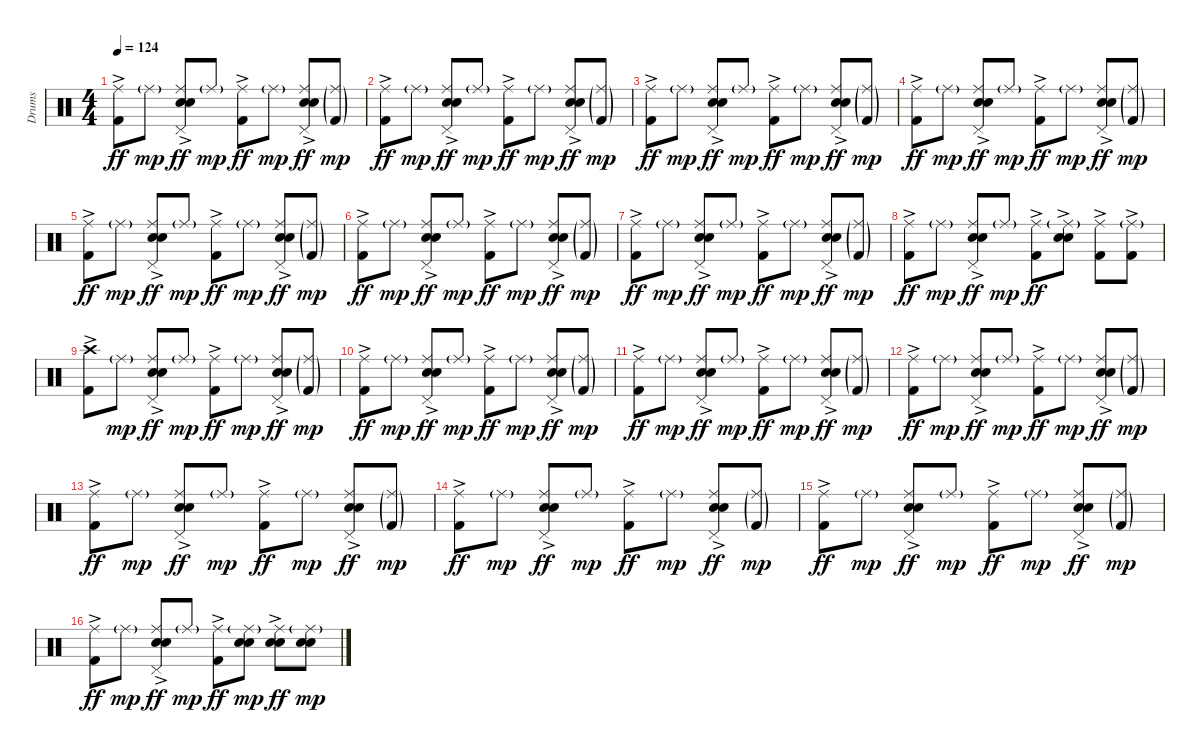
\track ("Drums" "Drums") {instrument percussion}
\staff {score}
\articulation defaults
\ts (4 4)
\tempo 124
\clef neutral
\ks c
("Ride (middle)" "Kick (hit) 2"{ac}).8{dy ff} "Ride (middle)"{g}.8{dy mp} ("Ride (middle)" "Electric Snare (hit)"{ac} "Snare (hit) 2" "Pedal Hi-Hat (hit)").8{dy ff} "Ride (middle)"{g}.8{dy mp} ("Ride (middle)" "Kick (hit) 2"{ac}).8{dy ff} "Ride (middle)"{g}.8{dy mp} ("Ride (middle)" "Electric Snare (hit)"{ac} "Snare (hit) 2" "Pedal Hi-Hat (hit)").8{dy ff} ("Ride (middle)"{g} "Kick (hit) 2"{g}).8{dy mp} |
("Ride (middle)" "Kick (hit) 2"{ac}).8{dy ff} "Ride (middle)"{g}.8{dy mp} ("Ride (middle)" "Electric Snare (hit)"{ac} "Snare (hit) 2" "Pedal Hi-Hat (hit)").8{dy ff} "Ride (middle)"{g}.8{dy mp} ("Ride (middle)" "Kick (hit) 2"{ac}).8{dy ff} "Ride (middle)"{g}.8{dy mp} ("Ride (middle)" "Electric Snare (hit)"{ac} "Snare (hit) 2" "Pedal Hi-Hat (hit)").8{dy ff} ("Ride (middle)"{g} "Kick (hit) 2"{g}).8{dy mp} |
("Ride (middle)" "Kick (hit) 2"{ac}).8{dy ff} "Ride (middle)"{g}.8{dy mp} ("Ride (middle)" "Electric Snare (hit)"{ac} "Snare (hit) 2" "Pedal Hi-Hat (hit)").8{dy ff} "Ride (middle)"{g}.8{dy mp} ("Ride (middle)" "Kick (hit) 2"{ac}).8{dy ff} "Ride (middle)"{g}.8{dy mp} ("Ride (middle)" "Electric Snare (hit)"{ac} "Snare (hit) 2" "Pedal Hi-Hat (hit)").8{dy ff} ("Ride (middle)"{g} "Kick (hit) 2"{g}).8{dy mp} |
("Ride (middle)" "Kick (hit) 2"{ac}).8{dy ff} "Ride (middle)"{g}.8{dy mp} ("Ride (middle)" "Electric Snare (hit)"{ac} "Snare (hit) 2" "Pedal Hi-Hat (hit)").8{dy ff} "Ride (middle)"{g}.8{dy mp} ("Ride (middle)" "Kick (hit) 2"{ac}).8{dy ff} "Ride (middle)"{g}.8{dy mp} ("Ride (middle)" "Electric Snare (hit)"{ac} "Snare (hit) 2" "Pedal Hi-Hat (hit)").8{dy ff} ("Ride (middle)"{g} "Kick (hit) 2"{g}).8{dy mp} |
("Ride (middle)" "Kick (hit) 2"{ac}).8{dy ff} "Ride (middle)"{g}.8{dy mp} ("Ride (middle)" "Electric Snare (hit)"{ac} "Snare (hit) 2" "Pedal Hi-Hat (hit)").8{dy ff} "Ride (middle)"{g}.8{dy mp} ("Ride (middle)" "Kick (hit) 2"{ac}).8{dy ff} "Ride (middle)"{g}.8{dy mp} ("Ride (middle)" "Electric Snare (hit)"{ac} "Snare (hit) 2" "Pedal Hi-Hat (hit)").8{dy ff} ("Ride (middle)"{g} "Kick (hit) 2"{g}).8{dy mp} |
("Ride (middle)" "Kick (hit) 2"{ac}).8{dy ff} "Ride (middle)"{g}.8{dy mp} ("Ride (middle)" "Electric Snare (hit)"{ac} "Snare (hit) 2" "Pedal Hi-Hat (hit)").8{dy ff} "Ride (middle)"{g}.8{dy mp} ("Ride (middle)" "Kick (hit) 2"{ac}).8{dy ff} "Ride (middle)"{g}.8{dy mp} ("Ride (middle)" "Electric Snare (hit)"{ac} "Snare (hit) 2" "Pedal Hi-Hat (hit)").8{dy ff} ("Ride (middle)"{g} "Kick (hit) 2"{g}).8{dy mp} |
("Ride (middle)" "Kick (hit) 2"{ac}).8{dy ff} "Ride (middle)"{g}.8{dy mp} ("Ride (middle)" "Electric Snare (hit)"{ac} "Snare (hit) 2" "Pedal Hi-Hat (hit)").8{dy ff} "Ride (middle)"{g}.8{dy mp} ("Ride (middle)" "Kick (hit) 2"{ac}).8{dy ff} "Ride (middle)"{g}.8{dy mp} ("Ride (middle)" "Electric Snare (hit)"{ac} "Snare (hit) 2" "Pedal Hi-Hat (hit)").8{dy ff} ("Ride (middle)"{g} "Kick (hit) 2"{g}).8{dy mp} |
("Ride (middle)" "Kick (hit) 2"{ac}).8{dy ff} "Ride (middle)"{g}.8{dy mp} ("Ride (middle)" "Electric Snare (hit)"{ac} "Snare (hit) 2" "Pedal Hi-Hat (hit)").8{dy ff} "Ride (middle)"{g}.8{dy mp} ("Ride (middle)" "Kick (hit) 2"{ac}).8{dy ff} ("Ride (middle)"{g} "Electric Snare (hit)"{ac} "Snare (hit) 2").8 ("Ride (middle)" "Kick (hit) 2"{ac}).8 ("Ride (middle)"{g} "Kick (hit) 2"{ac}).8 |
("Crash high (hit)" "Kick (hit) 2"{ac}).8 "Ride (middle)"{g}.8{dy mp} ("Ride (middle)" "Electric Snare (hit)"{ac} "Snare (hit) 2" "Pedal Hi-Hat (hit)").8{dy ff} "Ride (middle)"{g}.8{dy mp} ("Ride (middle)" "Kick (hit) 2"{ac}).8{dy ff} "Ride (middle)"{g}.8{dy mp} ("Ride (middle)" "Electric Snare (hit)"{ac} "Snare (hit) 2" "Pedal Hi-Hat (hit)").8{dy ff} ("Ride (middle)"{g} "Kick (hit) 2"{g}).8{dy mp} |
("Ride (middle)" "Kick (hit) 2"{ac}).8{dy ff} "Ride (middle)"{g}.8{dy mp} ("Ride (middle)" "Electric Snare (hit)"{ac} "Snare (hit) 2" "Pedal Hi-Hat (hit)").8{dy ff} "Ride (middle)"{g}.8{dy mp} ("Ride (middle)" "Kick (hit) 2"{ac}).8{dy ff} "Ride (middle)"{g}.8{dy mp} ("Ride (middle)" "Electric Snare (hit)"{ac} "Snare (hit) 2" "Pedal Hi-Hat (hit)").8{dy ff} ("Ride (middle)"{g} "Kick (hit) 2"{g}).8{dy mp} |
("Ride (middle)" "Kick (hit) 2"{ac}).8{dy ff} "Ride (middle)"{g}.8{dy mp} ("Ride (middle)" "Electric Snare (hit)"{ac} "Snare (hit) 2" "Pedal Hi-Hat (hit)").8{dy ff} "Ride (middle)"{g}.8{dy mp} ("Ride (middle)" "Kick (hit) 2"{ac}).8{dy ff} "Ride (middle)"{g}.8{dy mp} ("Ride (middle)" "Electric Snare (hit)"{ac} "Snare (hit) 2" "Pedal Hi-Hat (hit)").8{dy ff} ("Ride (middle)"{g} "Kick (hit) 2"{g}).8{dy mp} |
("Ride (middle)" "Kick (hit) 2"{ac}).8{dy ff} "Ride (middle)"{g}.8{dy mp} ("Ride (middle)" "Electric Snare (hit)"{ac} "Snare (hit) 2" "Pedal Hi-Hat (hit)").8{dy ff} "Ride (middle)"{g}.8{dy mp} ("Ride (middle)" "Kick (hit) 2"{ac}).8{dy ff} "Ride (middle)"{g}.8{dy mp} ("Ride (middle)" "Electric Snare (hit)"{ac} "Snare (hit) 2" "Pedal Hi-Hat (hit)").8{dy ff} ("Ride (middle)"{g} "Kick (hit) 2"{g}).8{dy mp} |
("Ride (middle)" "Kick (hit) 2"{ac}).8{dy ff} "Ride (middle)"{g}.8{dy mp} ("Ride (middle)" "Electric Snare (hit)"{ac} "Snare (hit) 2" "Pedal Hi-Hat (hit)").8{dy ff} "Ride (middle)"{g}.8{dy mp} ("Ride (middle)" "Kick (hit) 2"{ac}).8{dy ff} "Ride (middle)"{g}.8{dy mp} ("Ride (middle)" "Electric Snare (hit)"{ac} "Snare (hit) 2" "Pedal Hi-Hat (hit)").8{dy ff} ("Ride (middle)"{g} "Kick (hit) 2"{g}).8{dy mp} |
("Ride (middle)" "Kick (hit) 2"{ac}).8{dy ff} "Ride (middle)"{g}.8{dy mp} ("Ride (middle)" "Electric Snare (hit)"{ac} "Snare (hit) 2" "Pedal Hi-Hat (hit)").8{dy ff} "Ride (middle)"{g}.8{dy mp} ("Ride (middle)" "Kick (hit) 2"{ac}).8{dy ff} "Ride (middle)"{g}.8{dy mp} ("Ride (middle)" "Electric Snare (hit)"{ac} "Snare (hit) 2" "Pedal Hi-Hat (hit)").8{dy ff} ("Ride (middle)"{g} "Kick (hit) 2"{g}).8{dy mp} |
("Ride (middle)" "Kick (hit) 2"{ac}).8{dy ff} "Ride (middle)"{g}.8{dy mp} ("Ride (middle)" "Electric Snare (hit)"{ac} "Snare (hit) 2" "Pedal Hi-Hat (hit)").8{dy ff} "Ride (middle)"{g}.8{dy mp} ("Ride (middle)" "Kick (hit) 2"{ac}).8{dy ff} "Ride (middle)"{g}.8{dy mp} ("Ride (middle)" "Electric Snare (hit)"{ac} "Snare (hit) 2" "Pedal Hi-Hat (hit)").8{dy ff} ("Ride (middle)"{g} "Kick (hit) 2"{g}).8{dy mp} |
("Ride (middle)" "Kick (hit) 2"{ac}).8{dy ff} "Ride (middle)"{g}.8{dy mp} ("Ride (middle)" "Electric Snare (hit)"{ac} "Snare (hit) 2" "Pedal Hi-Hat (hit)").8{dy ff} "Ride (middle)"{g}.8{dy mp} ("Ride (middle)" "Kick (hit) 2"{ac}).8{dy ff} ("Ride (middle)"{g} "Electric Snare (hit)" "Snare (hit) 2").8{dy mp} ("Ride (middle)" "Electric Snare (hit)"{ac} "Snare (hit) 2").8{dy ff} ("Ride (middle)"{g} "Electric Snare (hit)" "Snare (hit) 2").8{dy mp}
